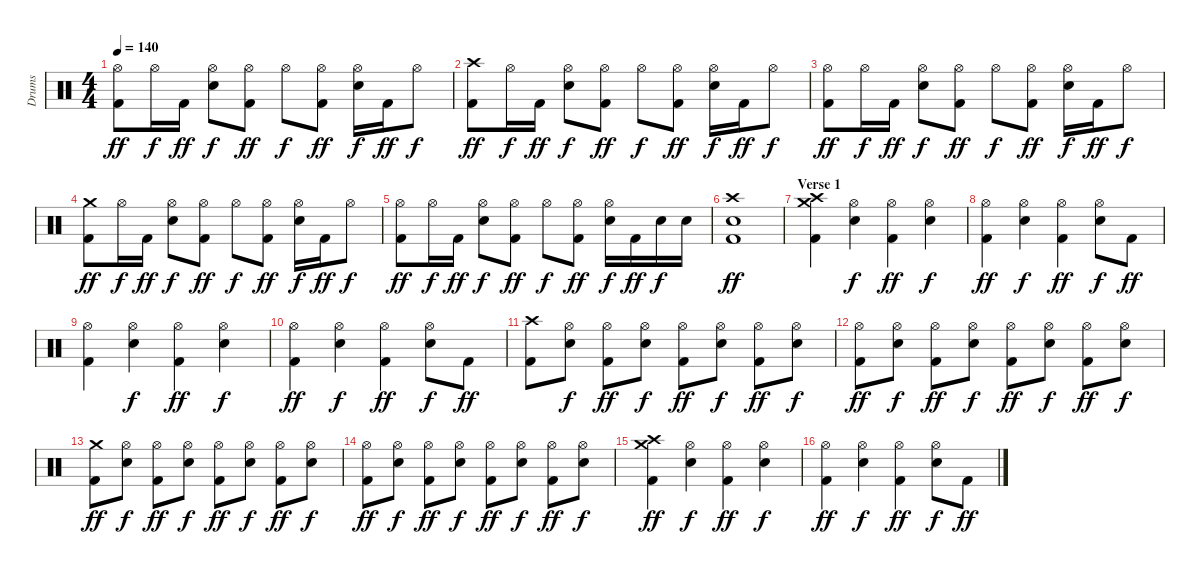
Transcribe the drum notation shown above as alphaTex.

\track ("Drums" "Drums") {instrument percussion}
\staff {score}
\articulation defaults
\ts (4 4)
\tempo 140
\clef neutral
\ks c
("Hi-Hat (open)" "Kick (hit) 2").8{dy ff} "Hi-Hat (open)".16{dy f} "Kick (hit) 2".16{dy ff} ("Hi-Hat (open)" "Electric Snare (hit)").8{dy f} ("Hi-Hat (open)" "Kick (hit) 2").8{dy ff} "Hi-Hat (open)".8{dy f} ("Hi-Hat (open)" "Kick (hit) 2").8{dy ff} ("Hi-Hat (open)" "Electric Snare (hit)").16{dy f} "Kick (hit) 2".16{dy ff} "Hi-Hat (open)".8{dy f} |
("Crash high (hit)" "Kick (hit) 2").8{dy ff} "Hi-Hat (open)".16{dy f} "Kick (hit) 2".16{dy ff} ("Hi-Hat (open)" "Electric Snare (hit)").8{dy f} ("Hi-Hat (open)" "Kick (hit) 2").8{dy ff} "Hi-Hat (open)".8{dy f} ("Hi-Hat (open)" "Kick (hit) 2").8{dy ff} ("Hi-Hat (open)" "Electric Snare (hit)").16{dy f} "Kick (hit) 2".16{dy ff} "Hi-Hat (open)".8{dy f} |
("Hi-Hat (open)" "Kick (hit) 2").8{dy ff} "Hi-Hat (open)".16{dy f} "Kick (hit) 2".16{dy ff} ("Hi-Hat (open)" "Electric Snare (hit)").8{dy f} ("Hi-Hat (open)" "Kick (hit) 2").8{dy ff} "Hi-Hat (open)".8{dy f} ("Hi-Hat (open)" "Kick (hit) 2").8{dy ff} ("Hi-Hat (open)" "Electric Snare (hit)").16{dy f} "Kick (hit) 2".16{dy ff} "Hi-Hat (open)".8{dy f} |
("Crash medium (hit)" "Kick (hit) 2").8{dy ff} "Hi-Hat (open)".16{dy f} "Kick (hit) 2".16{dy ff} ("Hi-Hat (open)" "Electric Snare (hit)").8{dy f} ("Hi-Hat (open)" "Kick (hit) 2").8{dy ff} "Hi-Hat (open)".8{dy f} ("Hi-Hat (open)" "Kick (hit) 2").8{dy ff} ("Hi-Hat (open)" "Electric Snare (hit)").16{dy f} "Kick (hit) 2".16{dy ff} "Hi-Hat (open)".8{dy f} |
("Hi-Hat (open)" "Kick (hit) 2").8{dy ff} "Hi-Hat (open)".16{dy f} "Kick (hit) 2".16{dy ff} ("Hi-Hat (open)" "Electric Snare (hit)").8{dy f} ("Hi-Hat (open)" "Kick (hit) 2").8{dy ff} "Hi-Hat (open)".8{dy f} ("Hi-Hat (open)" "Kick (hit) 2").8{dy ff} ("Hi-Hat (open)" "Electric Snare (hit)").16{dy f} "Kick (hit) 2".16{dy ff} "Electric Snare (hit)".16{dy f} "Electric Snare (hit)".16 |
("Crash high (hit)" "Electric Snare (hit)" "Kick (hit) 2").1{dy ff} |
\section ("" "Verse 1")
("Crash high (hit)" "Crash medium (hit)" "Kick (hit) 2").4 ("Hi-Hat (open)" "Electric Snare (hit)").4{dy f} ("Hi-Hat (open)" "Kick (hit) 2").4{dy ff} ("Hi-Hat (open)" "Electric Snare (hit)").4{dy f} |
("Hi-Hat (open)" "Kick (hit) 2").4{dy ff} ("Hi-Hat (open)" "Electric Snare (hit)").4{dy f} ("Hi-Hat (open)" "Kick (hit) 2").4{dy ff} ("Hi-Hat (open)" "Electric Snare (hit)").8{dy f} "Kick (hit) 2".8{dy ff} |
("Hi-Hat (open)" "Kick (hit) 2").4 ("Hi-Hat (open)" "Electric Snare (hit)").4{dy f} ("Hi-Hat (open)" "Kick (hit) 2").4{dy ff} ("Hi-Hat (open)" "Electric Snare (hit)").4{dy f} |
("Hi-Hat (open)" "Kick (hit) 2").4{dy ff} ("Hi-Hat (open)" "Electric Snare (hit)").4{dy f} ("Hi-Hat (open)" "Kick (hit) 2").4{dy ff} ("Hi-Hat (open)" "Electric Snare (hit)").8{dy f} "Kick (hit) 2".8{dy ff} |
("Crash high (hit)" "Kick (hit) 2").8 ("Hi-Hat (open)" "Electric Snare (hit)").8{dy f} ("Hi-Hat (open)" "Kick (hit) 2").8{dy ff} ("Hi-Hat (open)" "Electric Snare (hit)").8{dy f} ("Hi-Hat (open)" "Kick (hit) 2").8{dy ff} ("Hi-Hat (open)" "Electric Snare (hit)").8{dy f} ("Hi-Hat (open)" "Kick (hit) 2").8{dy ff} ("Hi-Hat (open)" "Electric Snare (hit)").8{dy f} |
("Hi-Hat (open)" "Kick (hit) 2").8{dy ff} ("Hi-Hat (open)" "Electric Snare (hit)").8{dy f} ("Hi-Hat (open)" "Kick (hit) 2").8{dy ff} ("Hi-Hat (open)" "Electric Snare (hit)").8{dy f} ("Hi-Hat (open)" "Kick (hit) 2").8{dy ff} ("Hi-Hat (open)" "Electric Snare (hit)").8{dy f} ("Hi-Hat (open)" "Kick (hit) 2").8{dy ff} ("Hi-Hat (open)" "Electric Snare (hit)").8{dy f} |
("Crash medium (hit)" "Kick (hit) 2").8{dy ff} ("Hi-Hat (open)" "Electric Snare (hit)").8{dy f} ("Hi-Hat (open)" "Kick (hit) 2").8{dy ff} ("Hi-Hat (open)" "Electric Snare (hit)").8{dy f} ("Hi-Hat (open)" "Kick (hit) 2").8{dy ff} ("Hi-Hat (open)" "Electric Snare (hit)").8{dy f} ("Hi-Hat (open)" "Kick (hit) 2").8{dy ff} ("Hi-Hat (open)" "Electric Snare (hit)").8{dy f} |
("Hi-Hat (open)" "Kick (hit) 2").8{dy ff} ("Hi-Hat (open)" "Electric Snare (hit)").8{dy f} ("Hi-Hat (open)" "Kick (hit) 2").8{dy ff} ("Hi-Hat (open)" "Electric Snare (hit)").8{dy f} ("Hi-Hat (open)" "Kick (hit) 2").8{dy ff} ("Hi-Hat (open)" "Electric Snare (hit)").8{dy f} ("Hi-Hat (open)" "Kick (hit) 2").8{dy ff} ("Hi-Hat (open)" "Electric Snare (hit)").8{dy f} |
("Crash high (hit)" "Crash medium (hit)" "Kick (hit) 2").4{dy ff} ("Hi-Hat (open)" "Electric Snare (hit)").4{dy f} ("Hi-Hat (open)" "Kick (hit) 2").4{dy ff} ("Hi-Hat (open)" "Electric Snare (hit)").4{dy f} |
("Hi-Hat (open)" "Kick (hit) 2").4{dy ff} ("Hi-Hat (open)" "Electric Snare (hit)").4{dy f} ("Hi-Hat (open)" "Kick (hit) 2").4{dy ff} ("Hi-Hat (open)" "Electric Snare (hit)").8{dy f} "Kick (hit) 2".8{dy ff}
